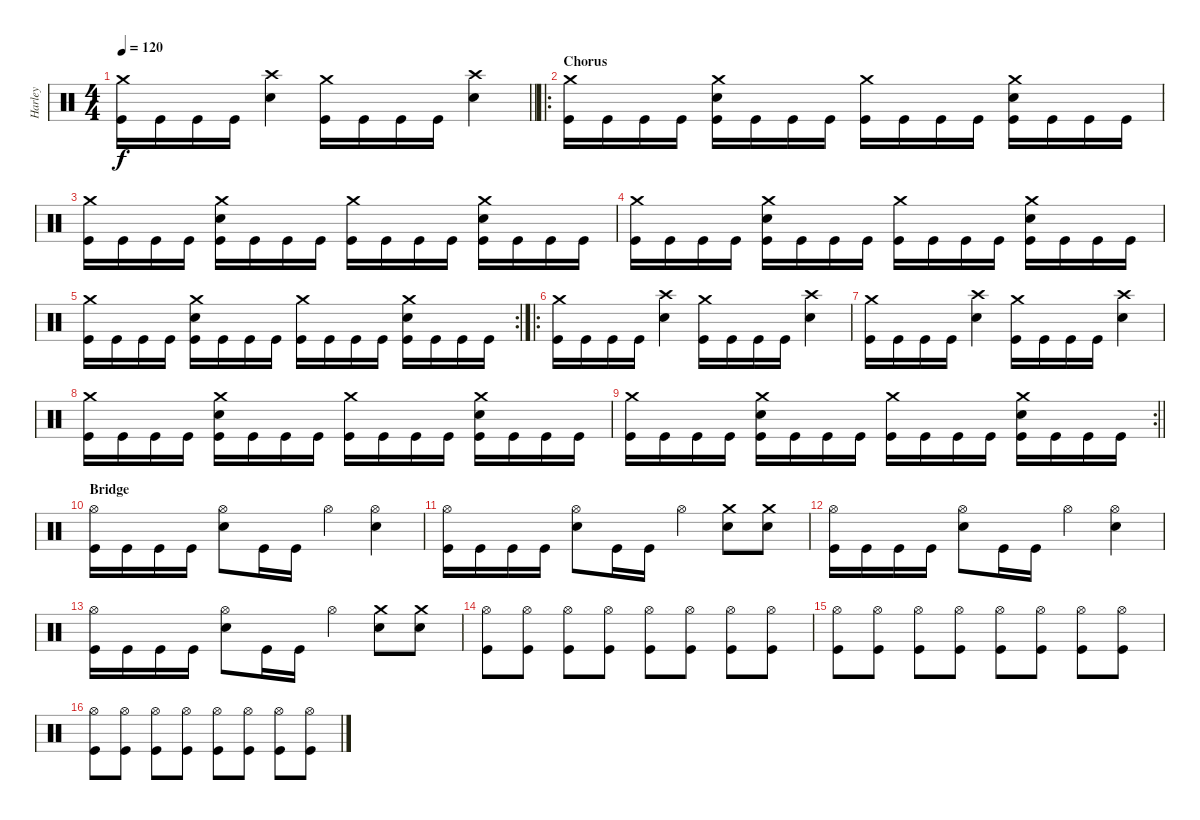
\track ("Harley" "Harley") {instrument percussion}
\staff {score}
\articulation defaults
\ts (4 4)
\tempo 120
\clef neutral
\barLineRight lightlight
\ks c
("Crash medium (hit)" "Kick (hit)").16{dy f} "Kick (hit)".16 "Kick (hit)".16 "Kick (hit)".16 ("Crash high (hit)" "Snare (hit) 2").4 ("Crash medium (hit)" "Kick (hit)").16 "Kick (hit)".16 "Kick (hit)".16 "Kick (hit)".16 ("Crash high (hit)" "Snare (hit) 2").4 |
\ro
\section ("" "Chorus")
("Crash medium (hit)" "Kick (hit)").16 "Kick (hit)".16 "Kick (hit)".16 "Kick (hit)".16 ("Crash medium (hit)" "Snare (hit) 2" "Kick (hit)").16 "Kick (hit)".16 "Kick (hit)".16 "Kick (hit)".16 ("Crash medium (hit)" "Kick (hit)").16 "Kick (hit)".16 "Kick (hit)".16 "Kick (hit)".16 ("Crash medium (hit)" "Snare (hit) 2" "Kick (hit)").16 "Kick (hit)".16 "Kick (hit)".16 "Kick (hit)".16 |
("Crash medium (hit)" "Kick (hit)").16 "Kick (hit)".16 "Kick (hit)".16 "Kick (hit)".16 ("Crash medium (hit)" "Snare (hit) 2" "Kick (hit)").16 "Kick (hit)".16 "Kick (hit)".16 "Kick (hit)".16 ("Crash medium (hit)" "Kick (hit)").16 "Kick (hit)".16 "Kick (hit)".16 "Kick (hit)".16 ("Crash medium (hit)" "Snare (hit) 2" "Kick (hit)").16 "Kick (hit)".16 "Kick (hit)".16 "Kick (hit)".16 |
("Crash medium (hit)" "Kick (hit)").16 "Kick (hit)".16 "Kick (hit)".16 "Kick (hit)".16 ("Crash medium (hit)" "Snare (hit) 2" "Kick (hit)").16 "Kick (hit)".16 "Kick (hit)".16 "Kick (hit)".16 ("Crash medium (hit)" "Kick (hit)").16 "Kick (hit)".16 "Kick (hit)".16 "Kick (hit)".16 ("Crash medium (hit)" "Snare (hit) 2" "Kick (hit)").16 "Kick (hit)".16 "Kick (hit)".16 "Kick (hit)".16 |
\rc 2
("Crash medium (hit)" "Kick (hit)").16 "Kick (hit)".16 "Kick (hit)".16 "Kick (hit)".16 ("Crash medium (hit)" "Snare (hit) 2" "Kick (hit)").16 "Kick (hit)".16 "Kick (hit)".16 "Kick (hit)".16 ("Crash medium (hit)" "Kick (hit)").16 "Kick (hit)".16 "Kick (hit)".16 "Kick (hit)".16 ("Crash medium (hit)" "Snare (hit) 2" "Kick (hit)").16 "Kick (hit)".16 "Kick (hit)".16 "Kick (hit)".16 |
\ro
("Crash medium (hit)" "Kick (hit)").16 "Kick (hit)".16 "Kick (hit)".16 "Kick (hit)".16 ("Crash high (hit)" "Snare (hit) 2").4 ("Crash medium (hit)" "Kick (hit)").16 "Kick (hit)".16 "Kick (hit)".16 "Kick (hit)".16 ("Crash high (hit)" "Snare (hit) 2").4 |
("Crash medium (hit)" "Kick (hit)").16 "Kick (hit)".16 "Kick (hit)".16 "Kick (hit)".16 ("Crash high (hit)" "Snare (hit) 2").4 ("Crash medium (hit)" "Kick (hit)").16 "Kick (hit)".16 "Kick (hit)".16 "Kick (hit)".16 ("Crash high (hit)" "Snare (hit) 2").4 |
("Crash medium (hit)" "Kick (hit)").16 "Kick (hit)".16 "Kick (hit)".16 "Kick (hit)".16 ("Crash medium (hit)" "Snare (hit) 2" "Kick (hit)").16 "Kick (hit)".16 "Kick (hit)".16 "Kick (hit)".16 ("Crash medium (hit)" "Kick (hit)").16 "Kick (hit)".16 "Kick (hit)".16 "Kick (hit)".16 ("Crash medium (hit)" "Snare (hit) 2" "Kick (hit)").16 "Kick (hit)".16 "Kick (hit)".16 "Kick (hit)".16 |
\rc 2
\barLineRight lightlight
("Crash medium (hit)" "Kick (hit)").16 "Kick (hit)".16 "Kick (hit)".16 "Kick (hit)".16 ("Crash medium (hit)" "Snare (hit) 2" "Kick (hit)").16 "Kick (hit)".16 "Kick (hit)".16 "Kick (hit)".16 ("Crash medium (hit)" "Kick (hit)").16 "Kick (hit)".16 "Kick (hit)".16 "Kick (hit)".16 ("Crash medium (hit)" "Snare (hit) 2" "Kick (hit)").16 "Kick (hit)".16 "Kick (hit)".16 "Kick (hit)".16 |
\section ("" "Bridge")
("Hi-Hat (open)" "Kick (hit)").16 "Kick (hit)".16 "Kick (hit)".16 "Kick (hit)".16 ("Hi-Hat (open)" "Snare (hit) 2").8 "Kick (hit)".16 "Kick (hit)".16 "Hi-Hat (open)".4 ("Hi-Hat (open)" "Snare (hit) 2").4 |
("Hi-Hat (open)" "Kick (hit)").16 "Kick (hit)".16 "Kick (hit)".16 "Kick (hit)".16 ("Hi-Hat (open)" "Snare (hit) 2").8 "Kick (hit)".16 "Kick (hit)".16 "Hi-Hat (open)".4 ("Crash medium (hit)" "Snare (hit) 2").8 ("Crash medium (hit)" "Snare (hit) 2").8 |
("Hi-Hat (open)" "Kick (hit)").16 "Kick (hit)".16 "Kick (hit)".16 "Kick (hit)".16 ("Hi-Hat (open)" "Snare (hit) 2").8 "Kick (hit)".16 "Kick (hit)".16 "Hi-Hat (open)".4 ("Hi-Hat (open)" "Snare (hit) 2").4 |
("Hi-Hat (open)" "Kick (hit)").16 "Kick (hit)".16 "Kick (hit)".16 "Kick (hit)".16 ("Hi-Hat (open)" "Snare (hit) 2").8 "Kick (hit)".16 "Kick (hit)".16 "Hi-Hat (open)".4 ("Crash medium (hit)" "Snare (hit) 2").8 ("Crash medium (hit)" "Snare (hit) 2").8 |
("Hi-Hat (open)" "Kick (hit)").8 ("Hi-Hat (open)" "Kick (hit)").8 ("Hi-Hat (open)" "Kick (hit)").8 ("Hi-Hat (open)" "Kick (hit)").8 ("Hi-Hat (open)" "Kick (hit)").8 ("Hi-Hat (open)" "Kick (hit)").8 ("Hi-Hat (open)" "Kick (hit)").8 ("Hi-Hat (open)" "Kick (hit)").8 |
("Hi-Hat (open)" "Kick (hit)").8 ("Hi-Hat (open)" "Kick (hit)").8 ("Hi-Hat (open)" "Kick (hit)").8 ("Hi-Hat (open)" "Kick (hit)").8 ("Hi-Hat (open)" "Kick (hit)").8 ("Hi-Hat (open)" "Kick (hit)").8 ("Hi-Hat (open)" "Kick (hit)").8 ("Hi-Hat (open)" "Kick (hit)").8 |
("Hi-Hat (open)" "Kick (hit)").8 ("Hi-Hat (open)" "Kick (hit)").8 ("Hi-Hat (open)" "Kick (hit)").8 ("Hi-Hat (open)" "Kick (hit)").8 ("Hi-Hat (open)" "Kick (hit)").8 ("Hi-Hat (open)" "Kick (hit)").8 ("Hi-Hat (open)" "Kick (hit)").8 ("Hi-Hat (open)" "Kick (hit)").8
